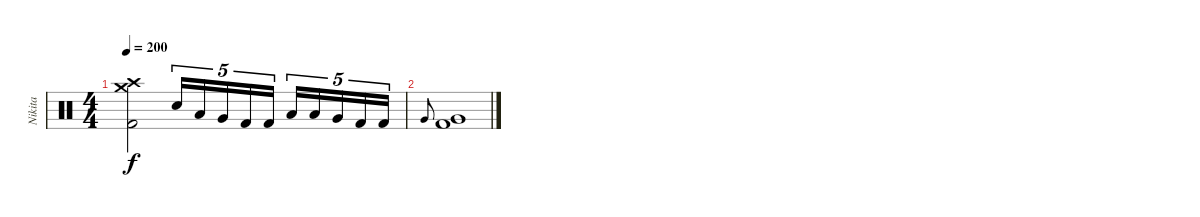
\track ("Nikita" "Nikita") {instrument percussion}
\staff {score}
\articulation defaults
\ts (4 4)
\tempo 200
\clef neutral
\ks c
("Crash high (hit)" "Crash medium (hit)" "Kick (hit) 2").2{dy f} "Electric Snare (hit)".16{tu (5 4)} "Low Tom (hit)".16{tu (5 4)} "Very Low Tom (hit)".16{tu (5 4)} "Kick (hit) 2".16{tu (5 4)} "Kick (hit) 2".16{tu (5 4)} "Low Tom (hit)".16{tu (5 4)} "Low Tom (hit)".16{tu (5 4)} "Very Low Tom (hit)".16{tu (5 4)} "Kick (hit) 2".16{tu (5 4)} "Kick (hit) 2".16{tu (5 4)} |
"Very Low Tom (hit)"{x}.8{gr onbeat} ("Very Low Tom (hit)" "Kick (hit) 2").1
